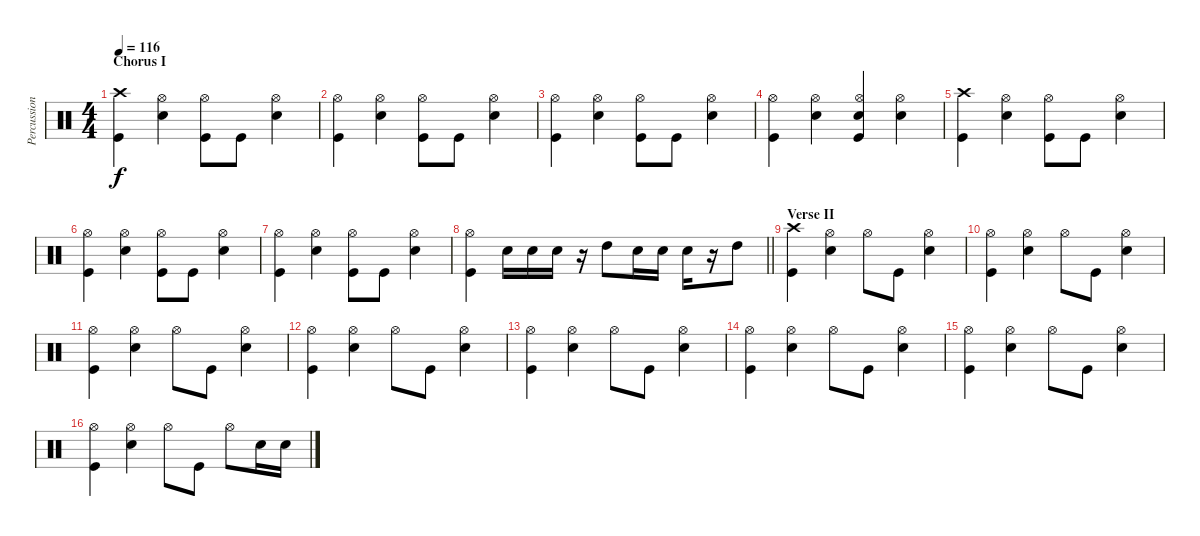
\track ("Percussions" "Percussion") {instrument percussion}
\staff {score}
\articulation defaults
\ts (4 4)
\section ("" "Chorus I")
\tempo 116
\clef neutral
\ks c
("Crash high (hit)" "Kick (hit)").4{dy f} ("Hi-Hat (open)" "Snare (hit) 2").4 ("Hi-Hat (open)" "Kick (hit)").8 "Kick (hit)".8 ("Hi-Hat (open)" "Snare (hit) 2").4 |
("Hi-Hat (open)" "Kick (hit)").4 ("Hi-Hat (open)" "Snare (hit) 2").4 ("Hi-Hat (open)" "Kick (hit)").8 "Kick (hit)".8 ("Hi-Hat (open)" "Snare (hit) 2").4 |
("Hi-Hat (open)" "Kick (hit)").4 ("Hi-Hat (open)" "Snare (hit) 2").4 ("Hi-Hat (open)" "Kick (hit)").8 "Kick (hit)".8 ("Hi-Hat (open)" "Snare (hit) 2").4 |
("Hi-Hat (open)" "Kick (hit)").4 ("Hi-Hat (open)" "Snare (hit) 2").4 ("Hi-Hat (open)" "Snare (hit) 2" "Kick (hit)").4 ("Hi-Hat (open)" "Snare (hit) 2").4 |
("Crash high (hit)" "Kick (hit)").4 ("Hi-Hat (open)" "Snare (hit) 2").4 ("Hi-Hat (open)" "Kick (hit)").8 "Kick (hit)".8 ("Hi-Hat (open)" "Snare (hit) 2").4 |
("Hi-Hat (open)" "Kick (hit)").4 ("Hi-Hat (open)" "Snare (hit) 2").4 ("Hi-Hat (open)" "Kick (hit)").8 "Kick (hit)".8 ("Hi-Hat (open)" "Snare (hit) 2").4 |
("Hi-Hat (open)" "Kick (hit)").4 ("Hi-Hat (open)" "Snare (hit) 2").4 ("Hi-Hat (open)" "Kick (hit)").8 "Kick (hit)".8 ("Hi-Hat (open)" "Snare (hit) 2").4 |
\barLineRight lightlight
("Hi-Hat (open)" "Kick (hit)").4 "Snare (hit) 2".16 "Snare (hit) 2".16 "Snare (hit) 2".16 r.16 "High Tom (hit)".8 "Snare (hit) 2".16 "Snare (hit) 2".16 "Snare (hit) 2".16 r.16 "High Tom (hit)".8 |
\section ("" "Verse II")
("Crash high (hit)" "Kick (hit)").4 ("Hi-Hat (open)" "Snare (hit) 2").4 "Hi-Hat (open)".8 "Kick (hit)".8 ("Hi-Hat (open)" "Snare (hit) 2").4 |
("Hi-Hat (open)" "Kick (hit)").4 ("Hi-Hat (open)" "Snare (hit) 2").4 "Hi-Hat (open)".8 "Kick (hit)".8 ("Hi-Hat (open)" "Snare (hit) 2").4 |
("Hi-Hat (open)" "Kick (hit)").4 ("Hi-Hat (open)" "Snare (hit) 2").4 "Hi-Hat (open)".8 "Kick (hit)".8 ("Hi-Hat (open)" "Snare (hit) 2").4 |
("Hi-Hat (open)" "Kick (hit)").4 ("Hi-Hat (open)" "Snare (hit) 2").4 "Hi-Hat (open)".8 "Kick (hit)".8 ("Hi-Hat (open)" "Snare (hit) 2").4 |
("Hi-Hat (open)" "Kick (hit)").4 ("Hi-Hat (open)" "Snare (hit) 2").4 "Hi-Hat (open)".8 "Kick (hit)".8 ("Hi-Hat (open)" "Snare (hit) 2").4 |
("Hi-Hat (open)" "Kick (hit)").4 ("Hi-Hat (open)" "Snare (hit) 2").4 "Hi-Hat (open)".8 "Kick (hit)".8 ("Hi-Hat (open)" "Snare (hit) 2").4 |
("Hi-Hat (open)" "Kick (hit)").4 ("Hi-Hat (open)" "Snare (hit) 2").4 "Hi-Hat (open)".8 "Kick (hit)".8 ("Hi-Hat (open)" "Snare (hit) 2").4 |
("Hi-Hat (open)" "Kick (hit)").4 ("Hi-Hat (open)" "Snare (hit) 2").4 "Hi-Hat (open)".8 "Kick (hit)".8 "Hi-Hat (open)".8 "Snare (hit) 2".16 "Snare (hit) 2".16
